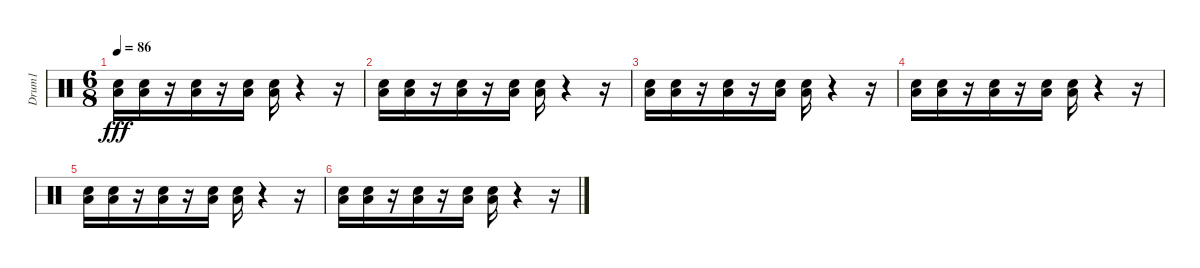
\track ("Drum1" "Drum1") {instrument percussion}
\staff {score}
\articulation defaults
\ts (6 8)
\tempo 86
\clef neutral
\ks c
("Snare (hit) 2" "Low Floor Tom (hit)").16{dy fff volume 7} ("Snare (hit) 2" "Low Floor Tom (hit)").16{volume 7} r.16 ("Snare (hit) 2" "Low Floor Tom (hit)").16{volume 7} r.16 ("Snare (hit) 2" "Low Floor Tom (hit)").16{volume 8} ("Snare (hit) 2" "Low Floor Tom (hit)").16 r.4 r.16 |
("Snare (hit) 2" "Low Floor Tom (hit)").16{volume 8} ("Snare (hit) 2" "Low Floor Tom (hit)").16{volume 8} r.16 ("Snare (hit) 2" "Low Floor Tom (hit)").16{volume 8} r.16 ("Snare (hit) 2" "Low Floor Tom (hit)").16{volume 8} ("Snare (hit) 2" "Low Floor Tom (hit)").16{volume 8} r.4 r.16 |
("Snare (hit) 2" "Low Floor Tom (hit)").16{volume 9} ("Snare (hit) 2" "Low Floor Tom (hit)").16{volume 9} r.16 ("Snare (hit) 2" "Low Floor Tom (hit)").16{volume 9} r.16 ("Snare (hit) 2" "Low Floor Tom (hit)").16{volume 9} ("Snare (hit) 2" "Low Floor Tom (hit)").16 r.4 r.16 |
("Snare (hit) 2" "Low Floor Tom (hit)").16{volume 10} ("Snare (hit) 2" "Low Floor Tom (hit)").16{volume 10} r.16 ("Snare (hit) 2" "Low Floor Tom (hit)").16{volume 10} r.16 ("Snare (hit) 2" "Low Floor Tom (hit)").16{volume 10} ("Snare (hit) 2" "Low Floor Tom (hit)").16{volume 10} r.4 r.16 |
("Snare (hit) 2" "Low Floor Tom (hit)").16{volume 11} ("Snare (hit) 2" "Low Floor Tom (hit)").16{volume 11} r.16 ("Snare (hit) 2" "Low Floor Tom (hit)").16{volume 11} r.16 ("Snare (hit) 2" "Low Floor Tom (hit)").16{volume 11} ("Snare (hit) 2" "Low Floor Tom (hit)").16 r.4 r.16 |
("Snare (hit) 2" "Low Floor Tom (hit)").16{volume 12} ("Snare (hit) 2" "Low Floor Tom (hit)").16{volume 12} r.16 ("Snare (hit) 2" "Low Floor Tom (hit)").16{volume 12} r.16 ("Snare (hit) 2" "Low Floor Tom (hit)").16{volume 12} ("Snare (hit) 2" "Low Floor Tom (hit)").16{volume 12} r.4 r.16
